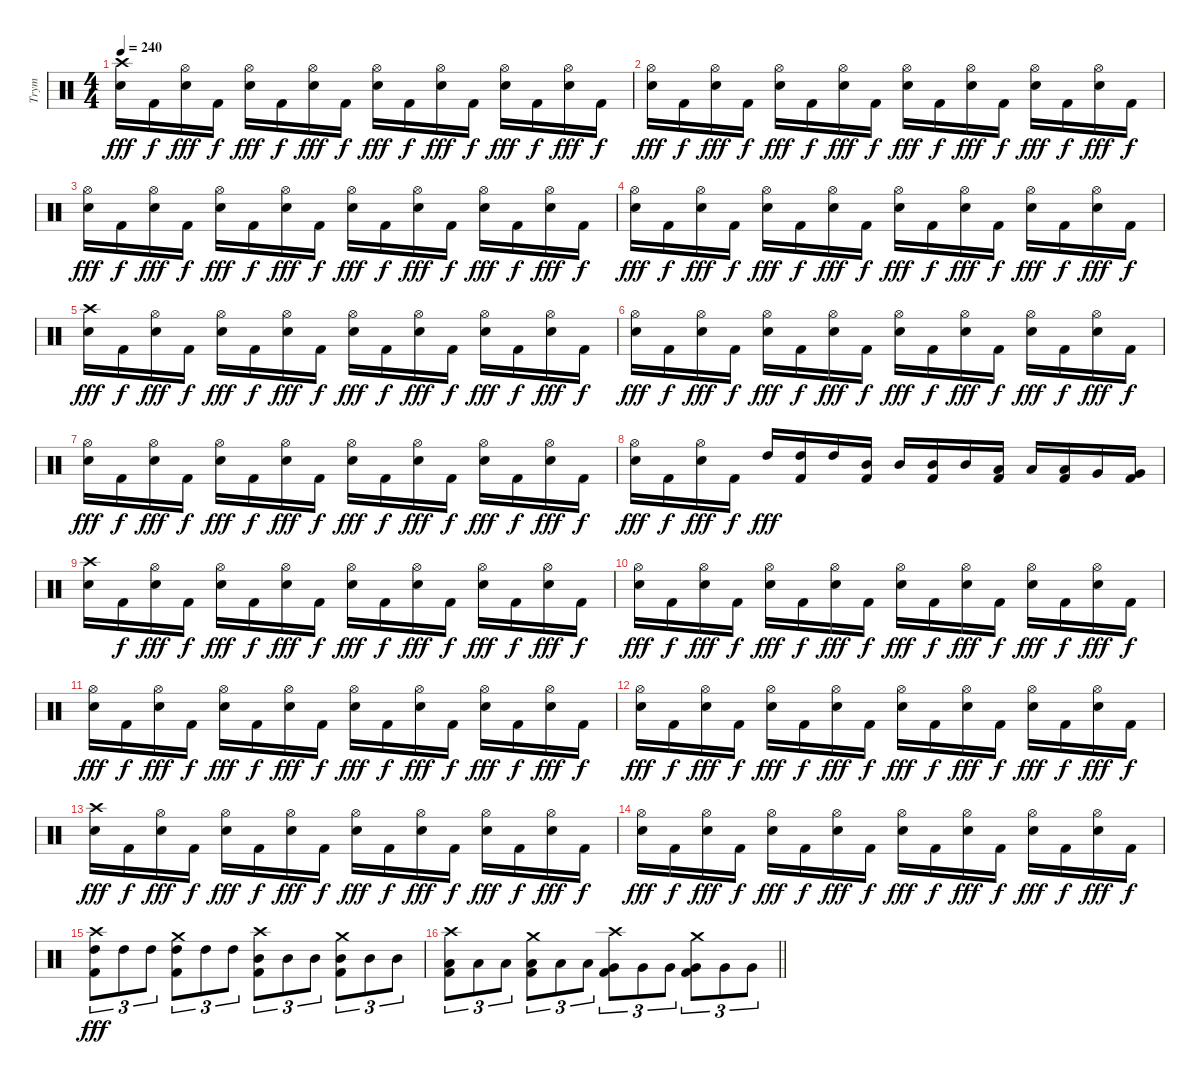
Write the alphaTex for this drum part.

\track ("Trym" "Trym") {instrument percussion}
\staff {score}
\articulation defaults
\ts (4 4)
\tempo 240
\clef neutral
\ks c
("Crash high (hit)" "Electric Snare (hit)").16{dy fff} "Kick (hit) 2".16{dy f} ("Hi-Hat (open)" "Electric Snare (hit)").16{dy fff} "Kick (hit) 2".16{dy f} ("Hi-Hat (open)" "Electric Snare (hit)").16{dy fff} "Kick (hit) 2".16{dy f} ("Hi-Hat (open)" "Electric Snare (hit)").16{dy fff} "Kick (hit) 2".16{dy f} ("Hi-Hat (open)" "Electric Snare (hit)").16{dy fff} "Kick (hit) 2".16{dy f} ("Hi-Hat (open)" "Electric Snare (hit)").16{dy fff} "Kick (hit) 2".16{dy f} ("Hi-Hat (open)" "Electric Snare (hit)").16{dy fff} "Kick (hit) 2".16{dy f} ("Hi-Hat (open)" "Electric Snare (hit)").16{dy fff} "Kick (hit) 2".16{dy f} |
("Hi-Hat (open)" "Electric Snare (hit)").16{dy fff} "Kick (hit) 2".16{dy f} ("Hi-Hat (open)" "Electric Snare (hit)").16{dy fff} "Kick (hit) 2".16{dy f} ("Hi-Hat (open)" "Electric Snare (hit)").16{dy fff} "Kick (hit) 2".16{dy f} ("Hi-Hat (open)" "Electric Snare (hit)").16{dy fff} "Kick (hit) 2".16{dy f} ("Hi-Hat (open)" "Electric Snare (hit)").16{dy fff} "Kick (hit) 2".16{dy f} ("Hi-Hat (open)" "Electric Snare (hit)").16{dy fff} "Kick (hit) 2".16{dy f} ("Hi-Hat (open)" "Electric Snare (hit)").16{dy fff} "Kick (hit) 2".16{dy f} ("Hi-Hat (open)" "Electric Snare (hit)").16{dy fff} "Kick (hit) 2".16{dy f} |
("Hi-Hat (open)" "Electric Snare (hit)").16{dy fff} "Kick (hit) 2".16{dy f} ("Hi-Hat (open)" "Electric Snare (hit)").16{dy fff} "Kick (hit) 2".16{dy f} ("Hi-Hat (open)" "Electric Snare (hit)").16{dy fff} "Kick (hit) 2".16{dy f} ("Hi-Hat (open)" "Electric Snare (hit)").16{dy fff} "Kick (hit) 2".16{dy f} ("Hi-Hat (open)" "Electric Snare (hit)").16{dy fff} "Kick (hit) 2".16{dy f} ("Hi-Hat (open)" "Electric Snare (hit)").16{dy fff} "Kick (hit) 2".16{dy f} ("Hi-Hat (open)" "Electric Snare (hit)").16{dy fff} "Kick (hit) 2".16{dy f} ("Hi-Hat (open)" "Electric Snare (hit)").16{dy fff} "Kick (hit) 2".16{dy f} |
("Hi-Hat (open)" "Electric Snare (hit)").16{dy fff} "Kick (hit) 2".16{dy f} ("Hi-Hat (open)" "Electric Snare (hit)").16{dy fff} "Kick (hit) 2".16{dy f} ("Hi-Hat (open)" "Electric Snare (hit)").16{dy fff} "Kick (hit) 2".16{dy f} ("Hi-Hat (open)" "Electric Snare (hit)").16{dy fff} "Kick (hit) 2".16{dy f} ("Hi-Hat (open)" "Electric Snare (hit)").16{dy fff} "Kick (hit) 2".16{dy f} ("Hi-Hat (open)" "Electric Snare (hit)").16{dy fff} "Kick (hit) 2".16{dy f} ("Hi-Hat (open)" "Electric Snare (hit)").16{dy fff} "Kick (hit) 2".16{dy f} ("Hi-Hat (open)" "Electric Snare (hit)").16{dy fff} "Kick (hit) 2".16{dy f} |
("Crash high (hit)" "Electric Snare (hit)").16{dy fff} "Kick (hit) 2".16{dy f} ("Hi-Hat (open)" "Electric Snare (hit)").16{dy fff} "Kick (hit) 2".16{dy f} ("Hi-Hat (open)" "Electric Snare (hit)").16{dy fff} "Kick (hit) 2".16{dy f} ("Hi-Hat (open)" "Electric Snare (hit)").16{dy fff} "Kick (hit) 2".16{dy f} ("Hi-Hat (open)" "Electric Snare (hit)").16{dy fff} "Kick (hit) 2".16{dy f} ("Hi-Hat (open)" "Electric Snare (hit)").16{dy fff} "Kick (hit) 2".16{dy f} ("Hi-Hat (open)" "Electric Snare (hit)").16{dy fff} "Kick (hit) 2".16{dy f} ("Hi-Hat (open)" "Electric Snare (hit)").16{dy fff} "Kick (hit) 2".16{dy f} |
("Hi-Hat (open)" "Electric Snare (hit)").16{dy fff} "Kick (hit) 2".16{dy f} ("Hi-Hat (open)" "Electric Snare (hit)").16{dy fff} "Kick (hit) 2".16{dy f} ("Hi-Hat (open)" "Electric Snare (hit)").16{dy fff} "Kick (hit) 2".16{dy f} ("Hi-Hat (open)" "Electric Snare (hit)").16{dy fff} "Kick (hit) 2".16{dy f} ("Hi-Hat (open)" "Electric Snare (hit)").16{dy fff} "Kick (hit) 2".16{dy f} ("Hi-Hat (open)" "Electric Snare (hit)").16{dy fff} "Kick (hit) 2".16{dy f} ("Hi-Hat (open)" "Electric Snare (hit)").16{dy fff} "Kick (hit) 2".16{dy f} ("Hi-Hat (open)" "Electric Snare (hit)").16{dy fff} "Kick (hit) 2".16{dy f} |
("Hi-Hat (open)" "Electric Snare (hit)").16{dy fff} "Kick (hit) 2".16{dy f} ("Hi-Hat (open)" "Electric Snare (hit)").16{dy fff} "Kick (hit) 2".16{dy f} ("Hi-Hat (open)" "Electric Snare (hit)").16{dy fff} "Kick (hit) 2".16{dy f} ("Hi-Hat (open)" "Electric Snare (hit)").16{dy fff} "Kick (hit) 2".16{dy f} ("Hi-Hat (open)" "Electric Snare (hit)").16{dy fff} "Kick (hit) 2".16{dy f} ("Hi-Hat (open)" "Electric Snare (hit)").16{dy fff} "Kick (hit) 2".16{dy f} ("Hi-Hat (open)" "Electric Snare (hit)").16{dy fff} "Kick (hit) 2".16{dy f} ("Hi-Hat (open)" "Electric Snare (hit)").16{dy fff} "Kick (hit) 2".16{dy f} |
("Hi-Hat (open)" "Electric Snare (hit)").16{dy fff} "Kick (hit) 2".16{dy f} ("Hi-Hat (open)" "Electric Snare (hit)").16{dy fff} "Kick (hit) 2".16{dy f} "High Tom (hit)".16{dy fff} ("High Tom (hit)" "Kick (hit) 2").16 "High Tom (hit)".16 ("Mid Tom (hit)" "Kick (hit) 2").16 "Mid Tom (hit)".16 ("Mid Tom (hit)" "Kick (hit) 2").16 "Mid Tom (hit)".16 ("Low Tom (hit)" "Kick (hit) 2").16 "Low Tom (hit)".16 ("Low Tom (hit)" "Kick (hit) 2").16 "Very Low Tom (hit)".16 ("Very Low Tom (hit)" "Kick (hit) 2").16 |
("Crash high (hit)" "Electric Snare (hit)").16 "Kick (hit) 2".16{dy f} ("Hi-Hat (open)" "Electric Snare (hit)").16{dy fff} "Kick (hit) 2".16{dy f} ("Hi-Hat (open)" "Electric Snare (hit)").16{dy fff} "Kick (hit) 2".16{dy f} ("Hi-Hat (open)" "Electric Snare (hit)").16{dy fff} "Kick (hit) 2".16{dy f} ("Hi-Hat (open)" "Electric Snare (hit)").16{dy fff} "Kick (hit) 2".16{dy f} ("Hi-Hat (open)" "Electric Snare (hit)").16{dy fff} "Kick (hit) 2".16{dy f} ("Hi-Hat (open)" "Electric Snare (hit)").16{dy fff} "Kick (hit) 2".16{dy f} ("Hi-Hat (open)" "Electric Snare (hit)").16{dy fff} "Kick (hit) 2".16{dy f} |
("Hi-Hat (open)" "Electric Snare (hit)").16{dy fff} "Kick (hit) 2".16{dy f} ("Hi-Hat (open)" "Electric Snare (hit)").16{dy fff} "Kick (hit) 2".16{dy f} ("Hi-Hat (open)" "Electric Snare (hit)").16{dy fff} "Kick (hit) 2".16{dy f} ("Hi-Hat (open)" "Electric Snare (hit)").16{dy fff} "Kick (hit) 2".16{dy f} ("Hi-Hat (open)" "Electric Snare (hit)").16{dy fff} "Kick (hit) 2".16{dy f} ("Hi-Hat (open)" "Electric Snare (hit)").16{dy fff} "Kick (hit) 2".16{dy f} ("Hi-Hat (open)" "Electric Snare (hit)").16{dy fff} "Kick (hit) 2".16{dy f} ("Hi-Hat (open)" "Electric Snare (hit)").16{dy fff} "Kick (hit) 2".16{dy f} |
("Hi-Hat (open)" "Electric Snare (hit)").16{dy fff} "Kick (hit) 2".16{dy f} ("Hi-Hat (open)" "Electric Snare (hit)").16{dy fff} "Kick (hit) 2".16{dy f} ("Hi-Hat (open)" "Electric Snare (hit)").16{dy fff} "Kick (hit) 2".16{dy f} ("Hi-Hat (open)" "Electric Snare (hit)").16{dy fff} "Kick (hit) 2".16{dy f} ("Hi-Hat (open)" "Electric Snare (hit)").16{dy fff} "Kick (hit) 2".16{dy f} ("Hi-Hat (open)" "Electric Snare (hit)").16{dy fff} "Kick (hit) 2".16{dy f} ("Hi-Hat (open)" "Electric Snare (hit)").16{dy fff} "Kick (hit) 2".16{dy f} ("Hi-Hat (open)" "Electric Snare (hit)").16{dy fff} "Kick (hit) 2".16{dy f} |
("Hi-Hat (open)" "Electric Snare (hit)").16{dy fff} "Kick (hit) 2".16{dy f} ("Hi-Hat (open)" "Electric Snare (hit)").16{dy fff} "Kick (hit) 2".16{dy f} ("Hi-Hat (open)" "Electric Snare (hit)").16{dy fff} "Kick (hit) 2".16{dy f} ("Hi-Hat (open)" "Electric Snare (hit)").16{dy fff} "Kick (hit) 2".16{dy f} ("Hi-Hat (open)" "Electric Snare (hit)").16{dy fff} "Kick (hit) 2".16{dy f} ("Hi-Hat (open)" "Electric Snare (hit)").16{dy fff} "Kick (hit) 2".16{dy f} ("Hi-Hat (open)" "Electric Snare (hit)").16{dy fff} "Kick (hit) 2".16{dy f} ("Hi-Hat (open)" "Electric Snare (hit)").16{dy fff} "Kick (hit) 2".16{dy f} |
("Crash high (hit)" "Electric Snare (hit)").16{dy fff} "Kick (hit) 2".16{dy f} ("Hi-Hat (open)" "Electric Snare (hit)").16{dy fff} "Kick (hit) 2".16{dy f} ("Hi-Hat (open)" "Electric Snare (hit)").16{dy fff} "Kick (hit) 2".16{dy f} ("Hi-Hat (open)" "Electric Snare (hit)").16{dy fff} "Kick (hit) 2".16{dy f} ("Hi-Hat (open)" "Electric Snare (hit)").16{dy fff} "Kick (hit) 2".16{dy f} ("Hi-Hat (open)" "Electric Snare (hit)").16{dy fff} "Kick (hit) 2".16{dy f} ("Hi-Hat (open)" "Electric Snare (hit)").16{dy fff} "Kick (hit) 2".16{dy f} ("Hi-Hat (open)" "Electric Snare (hit)").16{dy fff} "Kick (hit) 2".16{dy f} |
("Hi-Hat (open)" "Electric Snare (hit)").16{dy fff} "Kick (hit) 2".16{dy f} ("Hi-Hat (open)" "Electric Snare (hit)").16{dy fff} "Kick (hit) 2".16{dy f} ("Hi-Hat (open)" "Electric Snare (hit)").16{dy fff} "Kick (hit) 2".16{dy f} ("Hi-Hat (open)" "Electric Snare (hit)").16{dy fff} "Kick (hit) 2".16{dy f} ("Hi-Hat (open)" "Electric Snare (hit)").16{dy fff} "Kick (hit) 2".16{dy f} ("Hi-Hat (open)" "Electric Snare (hit)").16{dy fff} "Kick (hit) 2".16{dy f} ("Hi-Hat (open)" "Electric Snare (hit)").16{dy fff} "Kick (hit) 2".16{dy f} ("Hi-Hat (open)" "Electric Snare (hit)").16{dy fff} "Kick (hit) 2".16{dy f} |
("Crash high (hit)" "High Tom (hit)" "Kick (hit) 2").8{tu (3 2) dy fff} "High Tom (hit)".8{tu (3 2)} "High Tom (hit)".8{tu (3 2)} ("Crash medium (hit)" "High Tom (hit)" "Kick (hit) 2").8{tu (3 2)} "High Tom (hit)".8{tu (3 2)} "High Tom (hit)".8{tu (3 2)} ("Crash high (hit)" "Mid Tom (hit)" "Kick (hit) 2").8{tu (3 2)} "Mid Tom (hit)".8{tu (3 2)} "Mid Tom (hit)".8{tu (3 2)} ("Crash medium (hit)" "Mid Tom (hit)" "Kick (hit) 2").8{tu (3 2)} "Mid Tom (hit)".8{tu (3 2)} "Mid Tom (hit)".8{tu (3 2)} |
\barLineRight lightlight
("Crash high (hit)" "Low Tom (hit)" "Kick (hit) 2").8{tu (3 2)} "Low Tom (hit)".8{tu (3 2)} "Low Tom (hit)".8{tu (3 2)} ("Crash medium (hit)" "Low Tom (hit)" "Kick (hit) 2").8{tu (3 2)} "Low Tom (hit)".8{tu (3 2)} "Low Tom (hit)".8{tu (3 2)} ("Crash high (hit)" "Very Low Tom (hit)" "Kick (hit) 2").8{tu (3 2)} "Very Low Tom (hit)".8{tu (3 2)} "Very Low Tom (hit)".8{tu (3 2)} ("Crash medium (hit)" "Very Low Tom (hit)" "Kick (hit) 2").8{tu (3 2)} "Very Low Tom (hit)".8{tu (3 2)} "Very Low Tom (hit)".8{tu (3 2)}
